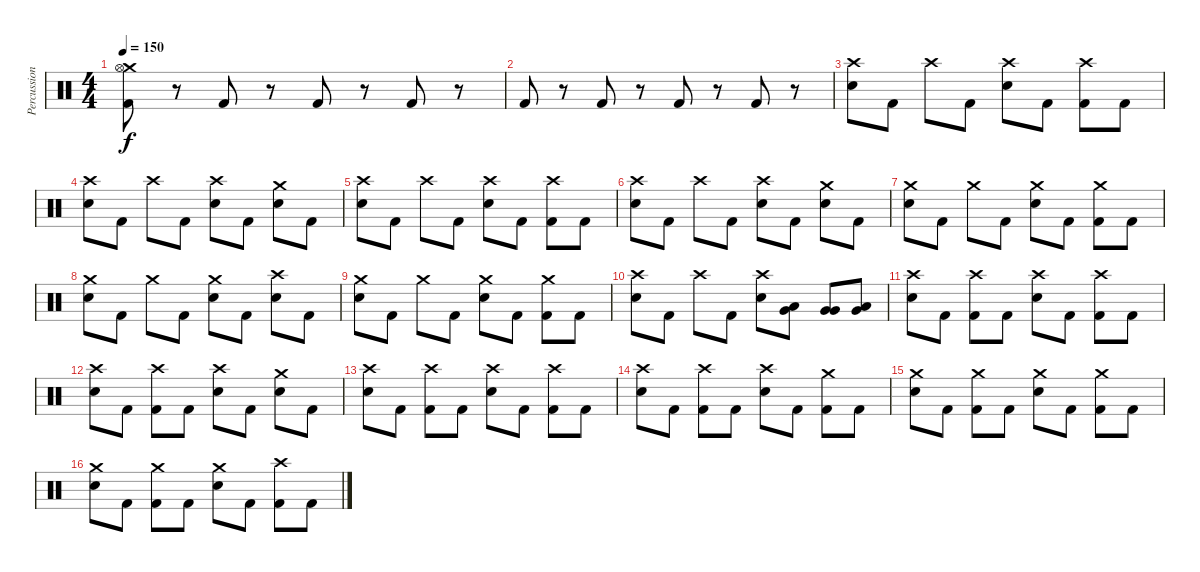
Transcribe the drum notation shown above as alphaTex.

\track ("Percussion" "Percussion") {instrument percussion}
\staff {score}
\articulation defaults
\ts (4 4)
\tempo 150
\clef neutral
\ks c
("Crash medium (hit)" "Hi-Hat (open)" "Kick (hit) 2").8{dy f} r.8 "Kick (hit) 2".8 r.8 "Kick (hit) 2".8 r.8 "Kick (hit) 2".8 r.8 |
"Kick (hit) 2".8 r.8 "Kick (hit) 2".8 r.8 "Kick (hit) 2".8 r.8 "Kick (hit) 2".8 r.8 |
("Crash high (hit)" "Snare (hit) 2").8 "Kick (hit) 2".8 "Crash high (hit)".8 "Kick (hit) 2".8 ("Crash high (hit)" "Snare (hit) 2").8 "Kick (hit) 2".8 ("Crash high (hit)" "Kick (hit) 2").8 "Kick (hit) 2".8 |
("Crash high (hit)" "Snare (hit) 2").8 "Kick (hit) 2".8 "Crash high (hit)".8 "Kick (hit) 2".8 ("Crash high (hit)" "Snare (hit) 2").8 "Kick (hit) 2".8 ("Crash medium (hit)" "Snare (hit) 2").8 "Kick (hit) 2".8 |
("Crash high (hit)" "Snare (hit) 2").8 "Kick (hit) 2".8 "Crash high (hit)".8 "Kick (hit) 2".8 ("Crash high (hit)" "Snare (hit) 2").8 "Kick (hit) 2".8 ("Crash high (hit)" "Kick (hit) 2").8 "Kick (hit) 2".8 |
("Crash high (hit)" "Snare (hit) 2").8 "Kick (hit) 2".8 "Crash high (hit)".8 "Kick (hit) 2".8 ("Crash high (hit)" "Snare (hit) 2").8 "Kick (hit) 2".8 ("Crash medium (hit)" "Snare (hit) 2").8 "Kick (hit) 2".8 |
("Crash medium (hit)" "Snare (hit) 2").8 "Kick (hit) 2".8 "Crash medium (hit)".8 "Kick (hit) 2".8 ("Crash medium (hit)" "Snare (hit) 2").8 "Kick (hit) 2".8 ("Crash medium (hit)" "Kick (hit) 2").8 "Kick (hit) 2".8 |
("Crash medium (hit)" "Snare (hit) 2").8 "Kick (hit) 2".8 "Crash medium (hit)".8 "Kick (hit) 2".8 ("Crash medium (hit)" "Snare (hit) 2").8 "Kick (hit) 2".8 ("Crash high (hit)" "Snare (hit) 2").8 "Kick (hit) 2".8 |
("Crash medium (hit)" "Snare (hit) 2").8 "Kick (hit) 2".8 "Crash medium (hit)".8 "Kick (hit) 2".8 ("Crash medium (hit)" "Snare (hit) 2").8 "Kick (hit) 2".8 ("Crash medium (hit)" "Kick (hit) 2").8 "Kick (hit) 2".8 |
("Crash high (hit)" "Snare (hit) 2").8 "Kick (hit) 2".8 "Crash high (hit)".8 "Kick (hit) 2".8 ("Crash high (hit)" "Snare (hit) 2").8 ("Low Tom (hit)" "Very Low Tom (hit)").8 ("Very Low Tom (hit)" "Very Low Tom (hit)").8 ("Low Floor Tom (hit)" "Very Low Tom (hit)").8 |
("Crash high (hit)" "Snare (hit) 2").8 "Kick (hit) 2".8 ("Crash high (hit)" "Kick (hit) 2").8 "Kick (hit) 2".8 ("Crash high (hit)" "Snare (hit) 2").8 "Kick (hit) 2".8 ("Crash high (hit)" "Kick (hit) 2").8 "Kick (hit) 2".8 |
("Crash high (hit)" "Snare (hit) 2").8 "Kick (hit) 2".8 ("Crash high (hit)" "Kick (hit) 2").8 "Kick (hit) 2".8 ("Crash high (hit)" "Snare (hit) 2").8 "Kick (hit) 2".8 ("Crash medium (hit)" "Snare (hit) 2").8 "Kick (hit) 2".8 |
("Crash high (hit)" "Snare (hit) 2").8 "Kick (hit) 2".8 ("Crash high (hit)" "Kick (hit) 2").8 "Kick (hit) 2".8 ("Crash high (hit)" "Snare (hit) 2").8 "Kick (hit) 2".8 ("Crash high (hit)" "Kick (hit) 2").8 "Kick (hit) 2".8 |
("Crash high (hit)" "Snare (hit) 2").8 "Kick (hit) 2".8 ("Crash high (hit)" "Kick (hit) 2").8 "Kick (hit) 2".8 ("Crash high (hit)" "Snare (hit) 2").8 "Kick (hit) 2".8 ("Crash medium (hit)" "Kick (hit) 2").8 "Kick (hit) 2".8 |
("Crash medium (hit)" "Snare (hit) 2").8 "Kick (hit) 2".8 ("Crash medium (hit)" "Kick (hit) 2").8 "Kick (hit) 2".8 ("Crash medium (hit)" "Snare (hit) 2").8 "Kick (hit) 2".8 ("Crash medium (hit)" "Kick (hit) 2").8 "Kick (hit) 2".8 |
("Crash medium (hit)" "Snare (hit) 2").8 "Kick (hit) 2".8 ("Crash medium (hit)" "Kick (hit) 2").8 "Kick (hit) 2".8 ("Crash medium (hit)" "Snare (hit) 2").8 "Kick (hit) 2".8 ("Crash high (hit)" "Kick (hit) 2").8 "Kick (hit) 2".8
